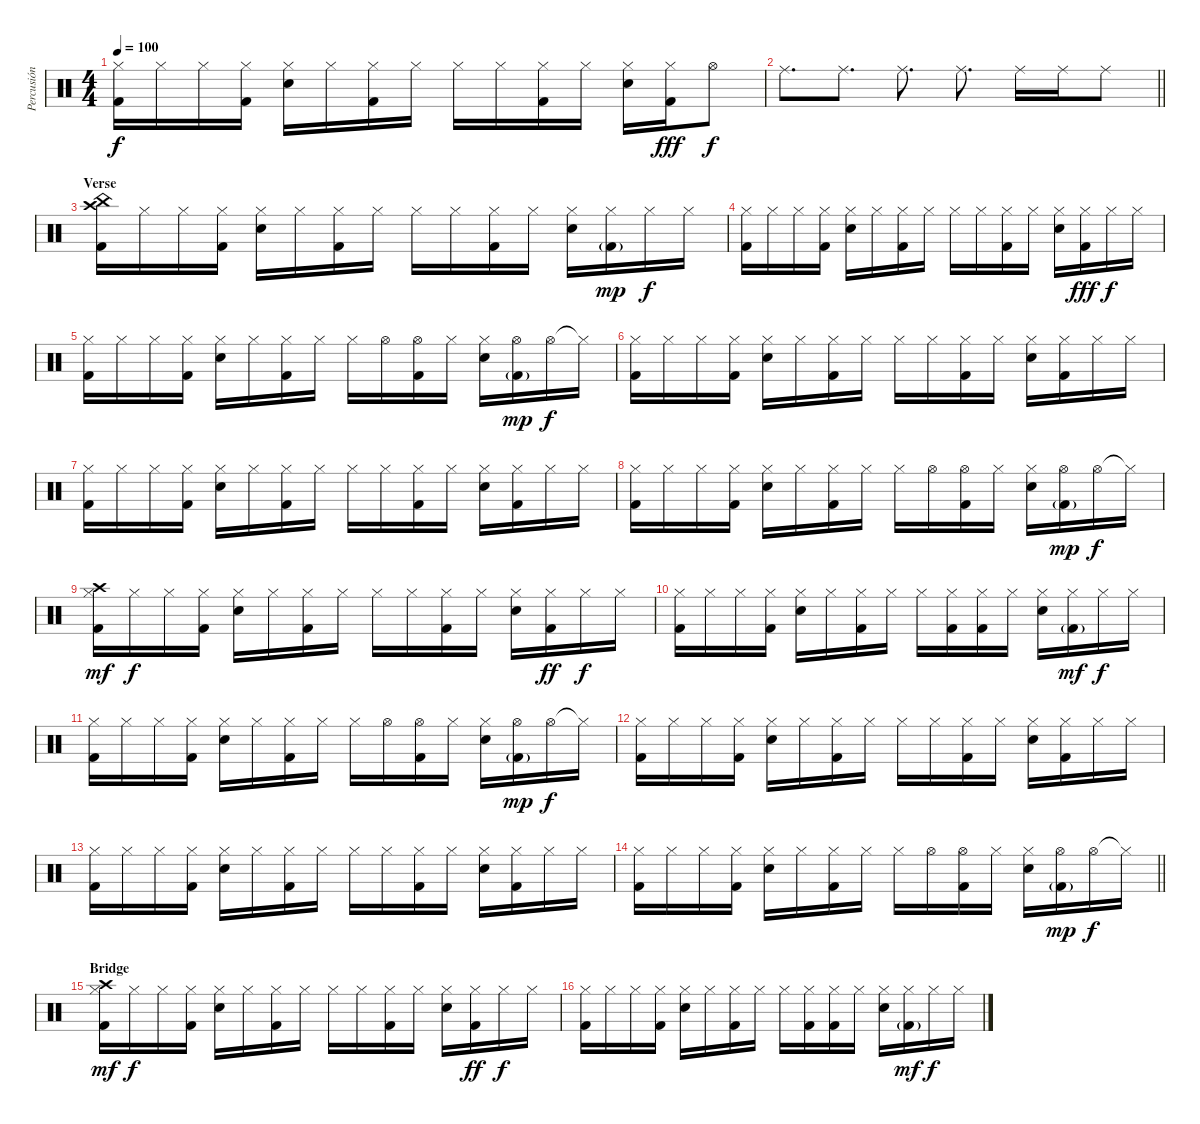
\track ("Percusión" "Percusión") {instrument percussion}
\staff {score}
\articulation defaults
\ts (4 4)
\tempo 100
\clef neutral
\ks c
("Kick (hit) 2" "Hi-Hat (closed)").16{dy f} "Hi-Hat (closed)".16 "Hi-Hat (closed)".16 ("Kick (hit) 2" "Hi-Hat (closed)").16 ("Snare (hit) 2" "Hi-Hat (closed)").16 "Hi-Hat (closed)".16 ("Kick (hit) 2" "Hi-Hat (closed)").16 "Hi-Hat (closed)".16 "Hi-Hat (closed)".16 "Hi-Hat (closed)".16 ("Kick (hit) 2" "Hi-Hat (closed)").16 "Hi-Hat (closed)".16 ("Snare (hit) 2" "Hi-Hat (closed)").16 ("Kick (hit) 2" "Hi-Hat (closed)").16{dy fff} "Hi-Hat (open)".8{dy f} |
\barLineRight lightlight "Ride (middle)".8{d} "Ride (middle)".8{d} "Ride (middle)".8{d} "Ride (middle)".8{d} "Ride (middle)".16 "Ride (middle)".16 "Ride (middle)".8
|
\section ("" "Verse")
("China (hit)" "Kick (hit) 2" "Crash high (hit)").16 "Hi-Hat (closed)".16 "Hi-Hat (closed)".16 ("Kick (hit) 2" "Hi-Hat (closed)").16 ("Snare (hit) 2" "Hi-Hat (closed)").16 "Hi-Hat (closed)".16 ("Kick (hit) 2" "Hi-Hat (closed)").16 "Hi-Hat (closed)".16 "Hi-Hat (closed)".16 "Hi-Hat (closed)".16 ("Kick (hit) 2" "Hi-Hat (closed)").16 "Hi-Hat (closed)".16 ("Snare (hit) 2" "Hi-Hat (closed)").16 ("Kick (hit) 2"{g} "Hi-Hat (closed)").16{dy mp} "Hi-Hat (closed)".16{dy f} "Hi-Hat (closed)".16 |
("Kick (hit) 2" "Hi-Hat (closed)").16 "Hi-Hat (closed)".16 "Hi-Hat (closed)".16 ("Kick (hit) 2" "Hi-Hat (closed)").16 ("Snare (hit) 2" "Hi-Hat (closed)").16 "Hi-Hat (closed)".16 ("Kick (hit) 2" "Hi-Hat (closed)").16 "Hi-Hat (closed)".16 "Hi-Hat (closed)".16 "Hi-Hat (closed)".16 ("Kick (hit) 2" "Hi-Hat (closed)").16 "Hi-Hat (closed)".16 ("Snare (hit) 2" "Hi-Hat (closed)").16 ("Kick (hit) 2" "Hi-Hat (closed)").16{dy fff} "Hi-Hat (closed)".16{dy f} "Hi-Hat (closed)".16 |
("Kick (hit) 2" "Hi-Hat (closed)").16 "Hi-Hat (closed)".16 "Hi-Hat (closed)".16 ("Kick (hit) 2" "Hi-Hat (closed)").16 ("Snare (hit) 2" "Hi-Hat (closed)").16 "Hi-Hat (closed)".16 ("Kick (hit) 2" "Hi-Hat (closed)").16 "Hi-Hat (closed)".16 "Hi-Hat (closed)".16 "Hi-Hat (open)".16 ("Kick (hit) 2" "Hi-Hat (open)").16 "Hi-Hat (closed)".16 ("Snare (hit) 2" "Hi-Hat (closed)").16 ("Kick (hit) 2"{g} "Hi-Hat (open)").16{dy mp} "Hi-Hat (open)".16{dy f} "Hi-Hat (closed)"{t}.16 |
("Kick (hit) 2" "Hi-Hat (closed)").16 "Hi-Hat (closed)".16 "Hi-Hat (closed)".16 ("Kick (hit) 2" "Hi-Hat (closed)").16 ("Snare (hit) 2" "Hi-Hat (closed)").16 "Hi-Hat (closed)".16 ("Kick (hit) 2" "Hi-Hat (closed)").16 "Hi-Hat (closed)".16 "Hi-Hat (closed)".16 "Hi-Hat (closed)".16 ("Kick (hit) 2" "Hi-Hat (closed)").16 "Hi-Hat (closed)".16 ("Snare (hit) 2" "Hi-Hat (closed)").16 ("Kick (hit) 2" "Hi-Hat (closed)").16 "Hi-Hat (closed)".16 "Hi-Hat (closed)".16 |
("Kick (hit) 2" "Hi-Hat (closed)").16 "Hi-Hat (closed)".16 "Hi-Hat (closed)".16 ("Kick (hit) 2" "Hi-Hat (closed)").16 ("Snare (hit) 2" "Hi-Hat (closed)").16 "Hi-Hat (closed)".16 ("Kick (hit) 2" "Hi-Hat (closed)").16 "Hi-Hat (closed)".16 "Hi-Hat (closed)".16 "Hi-Hat (closed)".16 ("Kick (hit) 2" "Hi-Hat (closed)").16 "Hi-Hat (closed)".16 ("Snare (hit) 2" "Hi-Hat (closed)").16 ("Kick (hit) 2" "Hi-Hat (closed)").16 "Hi-Hat (closed)".16 "Hi-Hat (closed)".16 |
("Kick (hit) 2" "Hi-Hat (closed)").16 "Hi-Hat (closed)".16 "Hi-Hat (closed)".16 ("Kick (hit) 2" "Hi-Hat (closed)").16 ("Snare (hit) 2" "Hi-Hat (closed)").16 "Hi-Hat (closed)".16 ("Kick (hit) 2" "Hi-Hat (closed)").16 "Hi-Hat (closed)".16 "Hi-Hat (closed)".16 "Hi-Hat (open)".16 ("Kick (hit) 2" "Hi-Hat (open)").16 "Hi-Hat (closed)".16 ("Snare (hit) 2" "Hi-Hat (closed)").16 ("Kick (hit) 2"{g} "Hi-Hat (open)").16{dy mp} "Hi-Hat (open)".16{dy f} "Hi-Hat (closed)"{t}.16 |
("Crash high (hit)" "Kick (hit) 2" "Hi-Hat (closed)").16{dy mf} "Hi-Hat (closed)".16{dy f} "Hi-Hat (closed)".16 ("Kick (hit) 2" "Hi-Hat (closed)").16 ("Snare (hit) 2" "Hi-Hat (closed)").16 "Hi-Hat (closed)".16 ("Kick (hit) 2" "Hi-Hat (closed)").16 "Hi-Hat (closed)".16 "Hi-Hat (closed)".16 "Hi-Hat (closed)".16 ("Kick (hit) 2" "Hi-Hat (closed)").16 "Hi-Hat (closed)".16 ("Snare (hit) 2" "Hi-Hat (closed)").16 ("Kick (hit) 2" "Hi-Hat (closed)").16{dy ff} "Hi-Hat (closed)".16{dy f} "Hi-Hat (closed)".16 |
("Kick (hit) 2" "Hi-Hat (closed)").16 "Hi-Hat (closed)".16 "Hi-Hat (closed)".16 ("Kick (hit) 2" "Hi-Hat (closed)").16 ("Snare (hit) 2" "Hi-Hat (closed)").16 "Hi-Hat (closed)".16 ("Kick (hit) 2" "Hi-Hat (closed)").16 "Hi-Hat (closed)".16 "Hi-Hat (closed)".16 ("Kick (hit) 2" "Hi-Hat (closed)").16 ("Kick (hit) 2" "Hi-Hat (closed)").16 "Hi-Hat (closed)".16 ("Snare (hit) 2" "Hi-Hat (closed)").16 ("Kick (hit) 2"{g} "Hi-Hat (closed)").16{dy mf} "Hi-Hat (closed)".16{dy f} "Hi-Hat (closed)".16 |
("Kick (hit) 2" "Hi-Hat (closed)").16 "Hi-Hat (closed)".16 "Hi-Hat (closed)".16 ("Kick (hit) 2" "Hi-Hat (closed)").16 ("Snare (hit) 2" "Hi-Hat (closed)").16 "Hi-Hat (closed)".16 ("Kick (hit) 2" "Hi-Hat (closed)").16 "Hi-Hat (closed)".16 "Hi-Hat (closed)".16 "Hi-Hat (open)".16 ("Kick (hit) 2" "Hi-Hat (open)").16 "Hi-Hat (closed)".16 ("Snare (hit) 2" "Hi-Hat (closed)").16 ("Kick (hit) 2"{g} "Hi-Hat (open)").16{dy mp} "Hi-Hat (open)".16{dy f} "Hi-Hat (closed)"{t}.16 |
("Kick (hit) 2" "Hi-Hat (closed)").16 "Hi-Hat (closed)".16 "Hi-Hat (closed)".16 ("Kick (hit) 2" "Hi-Hat (closed)").16 ("Snare (hit) 2" "Hi-Hat (closed)").16 "Hi-Hat (closed)".16 ("Kick (hit) 2" "Hi-Hat (closed)").16 "Hi-Hat (closed)".16 "Hi-Hat (closed)".16 "Hi-Hat (closed)".16 ("Kick (hit) 2" "Hi-Hat (closed)").16 "Hi-Hat (closed)".16 ("Snare (hit) 2" "Hi-Hat (closed)").16 ("Kick (hit) 2" "Hi-Hat (closed)").16 "Hi-Hat (closed)".16 "Hi-Hat (closed)".16 |
("Kick (hit) 2" "Hi-Hat (closed)").16 "Hi-Hat (closed)".16 "Hi-Hat (closed)".16 ("Kick (hit) 2" "Hi-Hat (closed)").16 ("Snare (hit) 2" "Hi-Hat (closed)").16 "Hi-Hat (closed)".16 ("Kick (hit) 2" "Hi-Hat (closed)").16 "Hi-Hat (closed)".16 "Hi-Hat (closed)".16 "Hi-Hat (closed)".16 ("Kick (hit) 2" "Hi-Hat (closed)").16 "Hi-Hat (closed)".16 ("Snare (hit) 2" "Hi-Hat (closed)").16 ("Kick (hit) 2" "Hi-Hat (closed)").16 "Hi-Hat (closed)".16 "Hi-Hat (closed)".16 |
\barLineRight lightlight
("Kick (hit) 2" "Hi-Hat (closed)").16 "Hi-Hat (closed)".16 "Hi-Hat (closed)".16 ("Kick (hit) 2" "Hi-Hat (closed)").16 ("Snare (hit) 2" "Hi-Hat (closed)").16 "Hi-Hat (closed)".16 ("Kick (hit) 2" "Hi-Hat (closed)").16 "Hi-Hat (closed)".16 "Hi-Hat (closed)".16 "Hi-Hat (open)".16 ("Kick (hit) 2" "Hi-Hat (open)").16 "Hi-Hat (closed)".16 ("Snare (hit) 2" "Hi-Hat (closed)").16 ("Kick (hit) 2"{g} "Hi-Hat (open)").16{dy mp} "Hi-Hat (open)".16{dy f} "Hi-Hat (closed)"{t}.16 |
\section ("" "Bridge")
("Crash high (hit)" "Kick (hit) 2" "Hi-Hat (closed)").16{dy mf} "Hi-Hat (closed)".16{dy f} "Hi-Hat (closed)".16 ("Kick (hit) 2" "Hi-Hat (closed)").16 ("Snare (hit) 2" "Hi-Hat (closed)").16 "Hi-Hat (closed)".16 ("Kick (hit) 2" "Hi-Hat (closed)").16 "Hi-Hat (closed)".16 "Hi-Hat (closed)".16 "Hi-Hat (closed)".16 ("Kick (hit) 2" "Hi-Hat (closed)").16 "Hi-Hat (closed)".16 ("Snare (hit) 2" "Hi-Hat (closed)").16 ("Kick (hit) 2" "Hi-Hat (closed)").16{dy ff} "Hi-Hat (closed)".16{dy f} "Hi-Hat (closed)".16 |
("Kick (hit) 2" "Hi-Hat (closed)").16 "Hi-Hat (closed)".16 "Hi-Hat (closed)".16 ("Kick (hit) 2" "Hi-Hat (closed)").16 ("Snare (hit) 2" "Hi-Hat (closed)").16 "Hi-Hat (closed)".16 ("Kick (hit) 2" "Hi-Hat (closed)").16 "Hi-Hat (closed)".16 "Hi-Hat (closed)".16 ("Kick (hit) 2" "Hi-Hat (closed)").16 ("Kick (hit) 2" "Hi-Hat (closed)").16 "Hi-Hat (closed)".16 ("Snare (hit) 2" "Hi-Hat (closed)").16 ("Kick (hit) 2"{g} "Hi-Hat (closed)").16{dy mf} "Hi-Hat (closed)".16{dy f} "Hi-Hat (closed)".16
